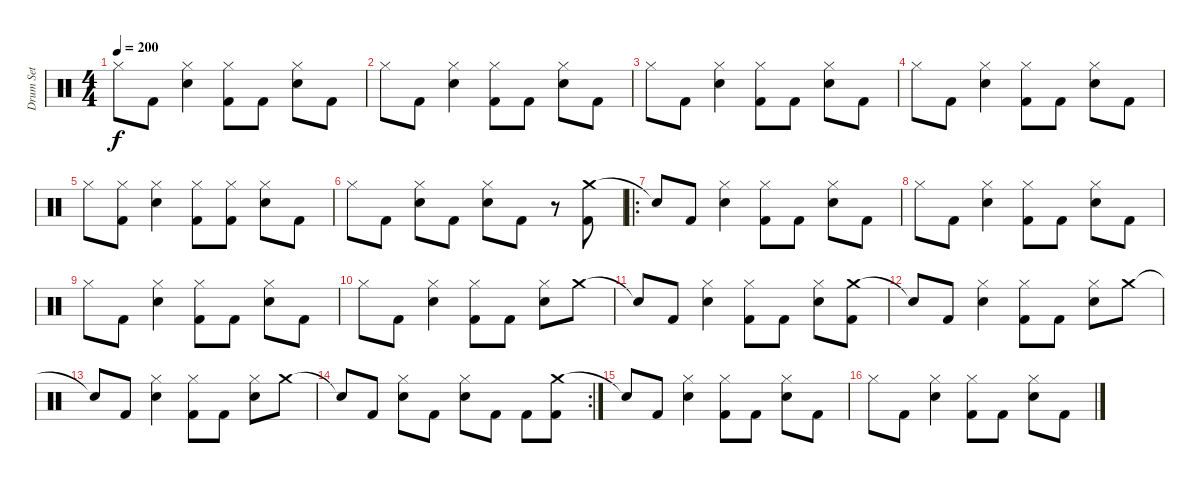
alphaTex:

\track ("Drum Set" "Drum Set") {instrument percussion}
\staff {score}
\articulation defaults
\ts (4 4)
\tempo 200
\clef neutral
\ks c "Hi-Hat (closed)".8{dy f} "Kick (hit) 2".8
("Hi-Hat (closed)" "Snare (hit) 2").4 ("Hi-Hat (closed)" "Kick (hit) 2").8 "Kick (hit) 2".8 ("Hi-Hat (closed)" "Snare (hit) 2").8 "Kick (hit) 2".8 |
"Hi-Hat (closed)".8 "Kick (hit) 2".8 ("Hi-Hat (closed)" "Snare (hit) 2").4 ("Hi-Hat (closed)" "Kick (hit) 2").8 "Kick (hit) 2".8 ("Hi-Hat (closed)" "Snare (hit) 2").8 "Kick (hit) 2".8 |
"Hi-Hat (closed)".8 "Kick (hit) 2".8 ("Hi-Hat (closed)" "Snare (hit) 2").4 ("Hi-Hat (closed)" "Kick (hit) 2").8 "Kick (hit) 2".8 ("Hi-Hat (closed)" "Snare (hit) 2").8 "Kick (hit) 2".8 |
"Hi-Hat (closed)".8 "Kick (hit) 2".8 ("Hi-Hat (closed)" "Snare (hit) 2").4 ("Hi-Hat (closed)" "Kick (hit) 2").8 "Kick (hit) 2".8 ("Hi-Hat (closed)" "Snare (hit) 2").8 "Kick (hit) 2".8 |
"Hi-Hat (closed)".8 ("Hi-Hat (closed)" "Kick (hit) 2").8 ("Hi-Hat (closed)" "Snare (hit) 2").4 ("Hi-Hat (closed)" "Kick (hit) 2").8 ("Hi-Hat (closed)" "Kick (hit) 2").8 ("Hi-Hat (closed)" "Snare (hit) 2").8 "Kick (hit) 2".8 |
"Hi-Hat (closed)".8 "Kick (hit) 2".8 ("Hi-Hat (closed)" "Snare (hit) 2").8 "Kick (hit) 2".8 ("Hi-Hat (closed)" "Snare (hit) 2").8 "Kick (hit) 2".8 r.8 ("Crash medium (hit)" "Kick (hit) 2").8 |
\ro "Snare (hit)"{t}.8 "Kick (hit) 2".8
("Hi-Hat (closed)" "Snare (hit) 2").4 ("Hi-Hat (closed)" "Kick (hit) 2").8 "Kick (hit) 2".8 ("Hi-Hat (closed)" "Snare (hit) 2").8 "Kick (hit) 2".8 |
"Hi-Hat (closed)".8 "Kick (hit) 2".8 ("Hi-Hat (closed)" "Snare (hit) 2").4 ("Hi-Hat (closed)" "Kick (hit) 2").8 "Kick (hit) 2".8 ("Hi-Hat (closed)" "Snare (hit) 2").8 "Kick (hit) 2".8 |
"Hi-Hat (closed)".8 "Kick (hit) 2".8 ("Hi-Hat (closed)" "Snare (hit) 2").4 ("Hi-Hat (closed)" "Kick (hit) 2").8 "Kick (hit) 2".8 ("Hi-Hat (closed)" "Snare (hit) 2").8 "Kick (hit) 2".8 |
"Hi-Hat (closed)".8 "Kick (hit) 2".8 ("Hi-Hat (closed)" "Snare (hit) 2").4 ("Hi-Hat (closed)" "Kick (hit) 2").8 "Kick (hit) 2".8 ("Hi-Hat (closed)" "Snare (hit) 2").8 "Crash medium (hit)".8 |
"Snare (hit)"{t}.8 "Kick (hit) 2".8 ("Hi-Hat (closed)" "Snare (hit) 2").4 ("Hi-Hat (closed)" "Kick (hit) 2").8 "Kick (hit) 2".8 ("Hi-Hat (closed)" "Snare (hit) 2").8 ("Crash medium (hit)" "Kick (hit) 2").8 |
"Snare (hit)"{t}.8 "Kick (hit) 2".8 ("Hi-Hat (closed)" "Snare (hit) 2").4 ("Hi-Hat (closed)" "Kick (hit) 2").8 "Kick (hit) 2".8 ("Hi-Hat (closed)" "Snare (hit) 2").8 "Crash medium (hit)".8 |
"Snare (hit)"{t}.8 "Kick (hit) 2".8 ("Hi-Hat (closed)" "Snare (hit) 2").4 ("Hi-Hat (closed)" "Kick (hit) 2").8 "Kick (hit) 2".8 ("Hi-Hat (closed)" "Snare (hit) 2").8 "Crash medium (hit)".8 |
\rc 2 "Snare (hit)"{t}.8 "Kick (hit) 2".8
("Hi-Hat (closed)" "Snare (hit) 2").8 "Kick (hit) 2".8 ("Hi-Hat (closed)" "Snare (hit) 2").8 "Kick (hit) 2".8 "Kick (hit) 2".8 ("Crash medium (hit)" "Kick (hit) 2").8 |
"Snare (hit)"{t}.8 "Kick (hit) 2".8 ("Hi-Hat (closed)" "Snare (hit) 2").4 ("Hi-Hat (closed)" "Kick (hit) 2").8 "Kick (hit) 2".8 ("Hi-Hat (closed)" "Snare (hit) 2").8 "Kick (hit) 2".8 |
"Hi-Hat (closed)".8 "Kick (hit) 2".8 ("Hi-Hat (closed)" "Snare (hit) 2").4 ("Hi-Hat (closed)" "Kick (hit) 2").8 "Kick (hit) 2".8 ("Hi-Hat (closed)" "Snare (hit) 2").8 "Kick (hit) 2".8
